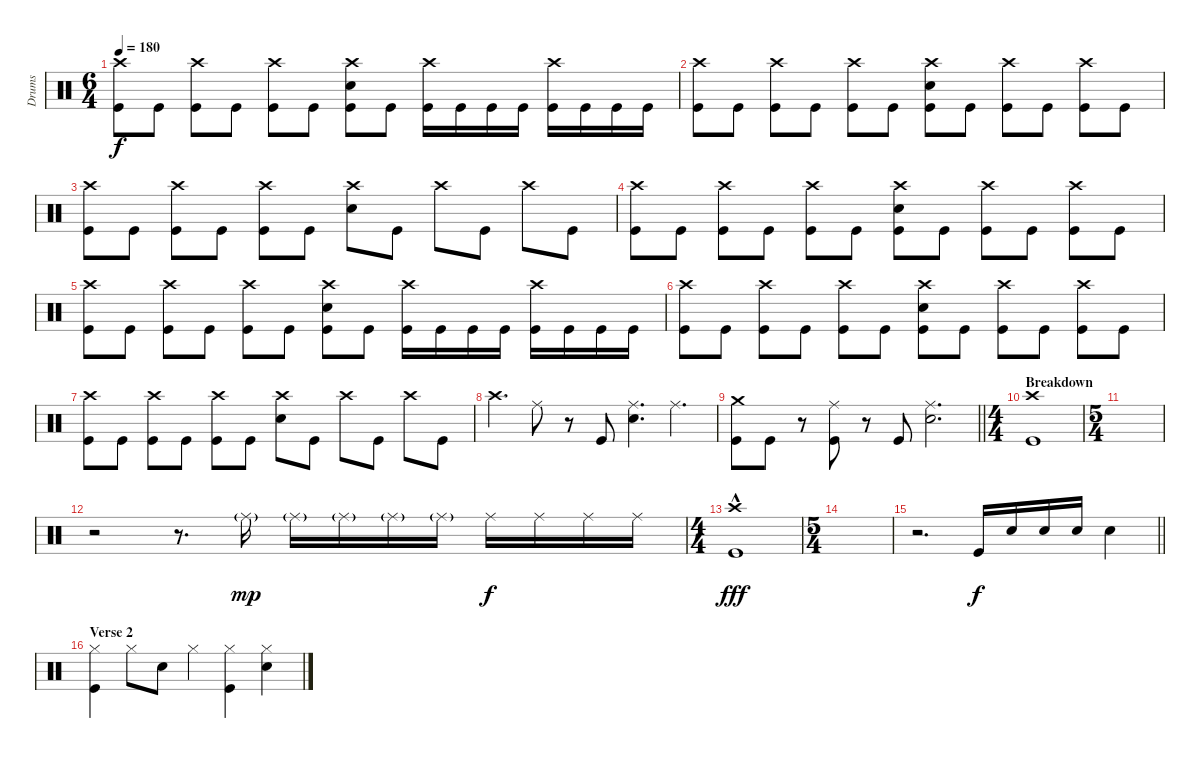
\track ("Drums" "Drums") {instrument percussion}
\staff {score}
\articulation defaults
\ts (6 4)
\tempo 180
\clef neutral
\ks c
("Crash high (hit)" "Kick (hit)").8{dy f} "Kick (hit)".8 ("Crash high (hit)" "Kick (hit)").8 "Kick (hit)".8 ("Crash high (hit)" "Kick (hit)").8 "Kick (hit)".8 ("Crash high (hit)" "Snare (hit) 2" "Kick (hit)").8 "Kick (hit)".8 ("Crash high (hit)" "Kick (hit)").16 "Kick (hit)".16 "Kick (hit)".16 "Kick (hit)".16 ("Crash high (hit)" "Kick (hit)").16 "Kick (hit)".16 "Kick (hit)".16 "Kick (hit)".16 |
("Crash high (hit)" "Kick (hit)").8 "Kick (hit)".8 ("Crash high (hit)" "Kick (hit)").8 "Kick (hit)".8 ("Crash high (hit)" "Kick (hit)").8 "Kick (hit)".8 ("Crash high (hit)" "Snare (hit) 2" "Kick (hit)").8 "Kick (hit)".8 ("Crash high (hit)" "Kick (hit)").8 "Kick (hit)".8 ("Crash high (hit)" "Kick (hit)").8 "Kick (hit)".8 |
("Crash high (hit)" "Kick (hit)").8 "Kick (hit)".8 ("Crash high (hit)" "Kick (hit)").8 "Kick (hit)".8 ("Crash high (hit)" "Kick (hit)").8 "Kick (hit)".8 ("Crash high (hit)" "Snare (hit) 2").8 "Kick (hit)".8 "Crash high (hit)".8 "Kick (hit)".8 "Crash high (hit)".8 "Kick (hit)".8 |
("Crash high (hit)" "Kick (hit)").8 "Kick (hit)".8 ("Crash high (hit)" "Kick (hit)").8 "Kick (hit)".8 ("Crash high (hit)" "Kick (hit)").8 "Kick (hit)".8 ("Crash high (hit)" "Snare (hit) 2" "Kick (hit)").8 "Kick (hit)".8 ("Crash high (hit)" "Kick (hit)").8 "Kick (hit)".8 ("Crash high (hit)" "Kick (hit)").8 "Kick (hit)".8 |
("Crash high (hit)" "Kick (hit)").8 "Kick (hit)".8 ("Crash high (hit)" "Kick (hit)").8 "Kick (hit)".8 ("Crash high (hit)" "Kick (hit)").8 "Kick (hit)".8 ("Crash high (hit)" "Snare (hit) 2" "Kick (hit)").8 "Kick (hit)".8 ("Crash high (hit)" "Kick (hit)").16 "Kick (hit)".16 "Kick (hit)".16 "Kick (hit)".16 ("Crash high (hit)" "Kick (hit)").16 "Kick (hit)".16 "Kick (hit)".16 "Kick (hit)".16 |
("Crash high (hit)" "Kick (hit)").8 "Kick (hit)".8 ("Crash high (hit)" "Kick (hit)").8 "Kick (hit)".8 ("Crash high (hit)" "Kick (hit)").8 "Kick (hit)".8 ("Crash high (hit)" "Snare (hit) 2" "Kick (hit)").8 "Kick (hit)".8 ("Crash high (hit)" "Kick (hit)").8 "Kick (hit)".8 ("Crash high (hit)" "Kick (hit)").8 "Kick (hit)".8 |
("Crash high (hit)" "Kick (hit)").8 "Kick (hit)".8 ("Crash high (hit)" "Kick (hit)").8 "Kick (hit)".8 ("Crash high (hit)" "Kick (hit)").8 "Kick (hit)".8 ("Crash high (hit)" "Snare (hit) 2").8 "Kick (hit)".8 "Crash high (hit)".8 "Kick (hit)".8 "Crash high (hit)".8 "Kick (hit)".8 |
"Crash high (hit)".4{d} "Ride (middle)".8 r.8 "Kick (hit)".8 ("Ride (middle)" "Snare (hit) 2").4{d} "Ride (middle)".4{d} |
\barLineRight lightlight
("Crash medium (hit)" "Kick (hit)").8 "Kick (hit)".8 r.8 ("Ride (middle)" "Kick (hit)").8 r.8 "Kick (hit)".8 ("Ride (middle)" "Snare (hit) 2").2{d} |
\ts (4 4)
\section ("" "Breakdown")
("Crash high (hit)" "Kick (hit)").1 |
\ts (5 4)
|
r.2 r.8{d} "Ride (middle)"{g}.16{dy mp} "Ride (middle)"{g}.16 "Ride (middle)"{g}.16 "Ride (middle)"{g}.16 "Ride (middle)"{g}.16 "Ride (middle)".16{dy f} "Ride (middle)".16 "Ride (middle)".16 "Ride (middle)".16 |
\ts (4 4)
("Crash high (hit)"{hac} "Kick (hit)"{hac}).1{dy fff} |
\ts (5 4)
|
\barLineRight lightlight
r.2{d} "Kick (hit)".16{dy f} "Snare (hit) 2".16 "Snare (hit) 2".16 "Snare (hit) 2".16 "Snare (hit) 2".4 |
\section ("" "Verse 2")
("Hi-Hat (closed)" "Kick (hit)").4 "Hi-Hat (closed)".8 "Snare (hit) 2".8 "Hi-Hat (closed)".4 ("Hi-Hat (closed)" "Kick (hit)").4 ("Hi-Hat (closed)" "Snare (hit) 2").4
